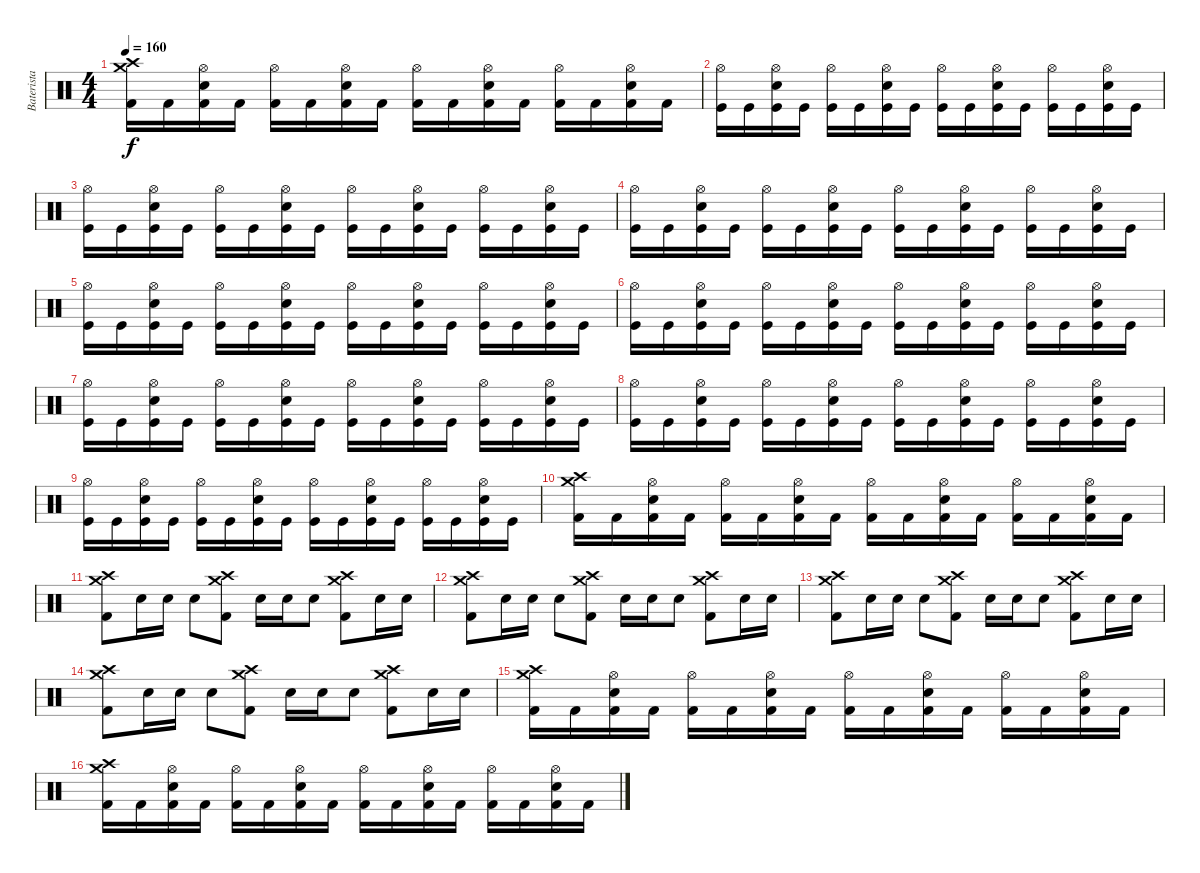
\track ("Baterista" "Baterista") {instrument percussion}
\staff {score}
\articulation defaults
\ts (4 4)
\tempo 160
\clef neutral
\ks c
("Kick (hit) 2" "Crash high (hit)" "Crash medium (hit)").16{dy f} "Kick (hit) 2".16 ("Kick (hit) 2" "Electric Snare (hit)" "Hi-Hat (open)").16 "Kick (hit) 2".16 ("Kick (hit) 2" "Hi-Hat (open)").16 "Kick (hit) 2".16 ("Kick (hit) 2" "Electric Snare (hit)" "Hi-Hat (open)").16 "Kick (hit) 2".16 ("Kick (hit) 2" "Hi-Hat (open)").16 "Kick (hit) 2".16 ("Kick (hit) 2" "Electric Snare (hit)" "Hi-Hat (open)").16 "Kick (hit) 2".16 ("Kick (hit) 2" "Hi-Hat (open)").16 "Kick (hit) 2".16 ("Kick (hit) 2" "Electric Snare (hit)" "Hi-Hat (open)").16 "Kick (hit) 2".16 |
("Hi-Hat (open)" "Kick (hit)").16 "Kick (hit)".16 ("Hi-Hat (open)" "Snare (hit) 2" "Kick (hit)").16 "Kick (hit)".16 ("Hi-Hat (open)" "Kick (hit)").16 "Kick (hit)".16 ("Hi-Hat (open)" "Snare (hit) 2" "Kick (hit)").16 "Kick (hit)".16 ("Hi-Hat (open)" "Kick (hit)").16 "Kick (hit)".16 ("Hi-Hat (open)" "Snare (hit) 2" "Kick (hit)").16 "Kick (hit)".16 ("Hi-Hat (open)" "Kick (hit)").16 "Kick (hit)".16 ("Hi-Hat (open)" "Snare (hit) 2" "Kick (hit)").16 "Kick (hit)".16 |
("Hi-Hat (open)" "Kick (hit)").16 "Kick (hit)".16 ("Hi-Hat (open)" "Snare (hit) 2" "Kick (hit)").16 "Kick (hit)".16 ("Hi-Hat (open)" "Kick (hit)").16 "Kick (hit)".16 ("Hi-Hat (open)" "Snare (hit) 2" "Kick (hit)").16 "Kick (hit)".16 ("Hi-Hat (open)" "Kick (hit)").16 "Kick (hit)".16 ("Hi-Hat (open)" "Snare (hit) 2" "Kick (hit)").16 "Kick (hit)".16 ("Hi-Hat (open)" "Kick (hit)").16 "Kick (hit)".16 ("Hi-Hat (open)" "Snare (hit) 2" "Kick (hit)").16 "Kick (hit)".16 |
("Hi-Hat (open)" "Kick (hit)").16 "Kick (hit)".16 ("Hi-Hat (open)" "Snare (hit) 2" "Kick (hit)").16 "Kick (hit)".16 ("Hi-Hat (open)" "Kick (hit)").16 "Kick (hit)".16 ("Hi-Hat (open)" "Snare (hit) 2" "Kick (hit)").16 "Kick (hit)".16 ("Hi-Hat (open)" "Kick (hit)").16 "Kick (hit)".16 ("Hi-Hat (open)" "Snare (hit) 2" "Kick (hit)").16 "Kick (hit)".16 ("Hi-Hat (open)" "Kick (hit)").16 "Kick (hit)".16 ("Hi-Hat (open)" "Snare (hit) 2" "Kick (hit)").16 "Kick (hit)".16 |
("Hi-Hat (open)" "Kick (hit)").16 "Kick (hit)".16 ("Hi-Hat (open)" "Snare (hit) 2" "Kick (hit)").16 "Kick (hit)".16 ("Hi-Hat (open)" "Kick (hit)").16 "Kick (hit)".16 ("Hi-Hat (open)" "Snare (hit) 2" "Kick (hit)").16 "Kick (hit)".16 ("Hi-Hat (open)" "Kick (hit)").16 "Kick (hit)".16 ("Hi-Hat (open)" "Snare (hit) 2" "Kick (hit)").16 "Kick (hit)".16 ("Hi-Hat (open)" "Kick (hit)").16 "Kick (hit)".16 ("Hi-Hat (open)" "Snare (hit) 2" "Kick (hit)").16 "Kick (hit)".16 |
("Hi-Hat (open)" "Kick (hit)").16 "Kick (hit)".16 ("Hi-Hat (open)" "Snare (hit) 2" "Kick (hit)").16 "Kick (hit)".16 ("Hi-Hat (open)" "Kick (hit)").16 "Kick (hit)".16 ("Hi-Hat (open)" "Snare (hit) 2" "Kick (hit)").16 "Kick (hit)".16 ("Hi-Hat (open)" "Kick (hit)").16 "Kick (hit)".16 ("Hi-Hat (open)" "Snare (hit) 2" "Kick (hit)").16 "Kick (hit)".16 ("Hi-Hat (open)" "Kick (hit)").16 "Kick (hit)".16 ("Hi-Hat (open)" "Snare (hit) 2" "Kick (hit)").16 "Kick (hit)".16 |
("Hi-Hat (open)" "Kick (hit)").16 "Kick (hit)".16 ("Hi-Hat (open)" "Snare (hit) 2" "Kick (hit)").16 "Kick (hit)".16 ("Hi-Hat (open)" "Kick (hit)").16 "Kick (hit)".16 ("Hi-Hat (open)" "Snare (hit) 2" "Kick (hit)").16 "Kick (hit)".16 ("Hi-Hat (open)" "Kick (hit)").16 "Kick (hit)".16 ("Hi-Hat (open)" "Snare (hit) 2" "Kick (hit)").16 "Kick (hit)".16 ("Hi-Hat (open)" "Kick (hit)").16 "Kick (hit)".16 ("Hi-Hat (open)" "Snare (hit) 2" "Kick (hit)").16 "Kick (hit)".16 |
("Hi-Hat (open)" "Kick (hit)").16 "Kick (hit)".16 ("Hi-Hat (open)" "Snare (hit) 2" "Kick (hit)").16 "Kick (hit)".16 ("Hi-Hat (open)" "Kick (hit)").16 "Kick (hit)".16 ("Hi-Hat (open)" "Snare (hit) 2" "Kick (hit)").16 "Kick (hit)".16 ("Hi-Hat (open)" "Kick (hit)").16 "Kick (hit)".16 ("Hi-Hat (open)" "Snare (hit) 2" "Kick (hit)").16 "Kick (hit)".16 ("Hi-Hat (open)" "Kick (hit)").16 "Kick (hit)".16 ("Hi-Hat (open)" "Snare (hit) 2" "Kick (hit)").16 "Kick (hit)".16 |
("Hi-Hat (open)" "Kick (hit)").16 "Kick (hit)".16 ("Hi-Hat (open)" "Snare (hit) 2" "Kick (hit)").16 "Kick (hit)".16 ("Hi-Hat (open)" "Kick (hit)").16 "Kick (hit)".16 ("Hi-Hat (open)" "Snare (hit) 2" "Kick (hit)").16 "Kick (hit)".16 ("Hi-Hat (open)" "Kick (hit)").16 "Kick (hit)".16 ("Hi-Hat (open)" "Snare (hit) 2" "Kick (hit)").16 "Kick (hit)".16 ("Hi-Hat (open)" "Kick (hit)").16 "Kick (hit)".16 ("Hi-Hat (open)" "Snare (hit) 2" "Kick (hit)").16 "Kick (hit)".16 |
("Kick (hit) 2" "Crash high (hit)" "Crash medium (hit)").16 "Kick (hit) 2".16 ("Kick (hit) 2" "Electric Snare (hit)" "Hi-Hat (open)").16 "Kick (hit) 2".16 ("Kick (hit) 2" "Hi-Hat (open)").16 "Kick (hit) 2".16 ("Kick (hit) 2" "Electric Snare (hit)" "Hi-Hat (open)").16 "Kick (hit) 2".16 ("Kick (hit) 2" "Hi-Hat (open)").16 "Kick (hit) 2".16 ("Kick (hit) 2" "Electric Snare (hit)" "Hi-Hat (open)").16 "Kick (hit) 2".16 ("Kick (hit) 2" "Hi-Hat (open)").16 "Kick (hit) 2".16 ("Kick (hit) 2" "Electric Snare (hit)" "Hi-Hat (open)").16 "Kick (hit) 2".16 |
("Kick (hit) 2" "Crash high (hit)" "Crash medium (hit)").8 "Electric Snare (hit)".16 "Electric Snare (hit)".16 "Electric Snare (hit)".8 ("Kick (hit) 2" "Crash high (hit)" "Crash medium (hit)").8 "Electric Snare (hit)".16 "Electric Snare (hit)".16 "Electric Snare (hit)".8 ("Kick (hit) 2" "Crash high (hit)" "Crash medium (hit)").8 "Electric Snare (hit)".16 "Electric Snare (hit)".16 |
("Kick (hit) 2" "Crash high (hit)" "Crash medium (hit)").8 "Electric Snare (hit)".16 "Electric Snare (hit)".16 "Electric Snare (hit)".8 ("Kick (hit) 2" "Crash high (hit)" "Crash medium (hit)").8 "Electric Snare (hit)".16 "Electric Snare (hit)".16 "Electric Snare (hit)".8 ("Kick (hit) 2" "Crash high (hit)" "Crash medium (hit)").8 "Electric Snare (hit)".16 "Electric Snare (hit)".16 |
("Kick (hit) 2" "Crash high (hit)" "Crash medium (hit)").8 "Electric Snare (hit)".16 "Electric Snare (hit)".16 "Electric Snare (hit)".8 ("Kick (hit) 2" "Crash high (hit)" "Crash medium (hit)").8 "Electric Snare (hit)".16 "Electric Snare (hit)".16 "Electric Snare (hit)".8 ("Kick (hit) 2" "Crash high (hit)" "Crash medium (hit)").8 "Electric Snare (hit)".16 "Electric Snare (hit)".16 |
("Kick (hit) 2" "Crash high (hit)" "Crash medium (hit)").8 "Electric Snare (hit)".16 "Electric Snare (hit)".16 "Electric Snare (hit)".8 ("Kick (hit) 2" "Crash high (hit)" "Crash medium (hit)").8 "Electric Snare (hit)".16 "Electric Snare (hit)".16 "Electric Snare (hit)".8 ("Kick (hit) 2" "Crash high (hit)" "Crash medium (hit)").8 "Electric Snare (hit)".16 "Electric Snare (hit)".16 |
("Kick (hit) 2" "Crash high (hit)" "Crash medium (hit)").16 "Kick (hit) 2".16 ("Kick (hit) 2" "Electric Snare (hit)" "Hi-Hat (open)").16 "Kick (hit) 2".16 ("Kick (hit) 2" "Hi-Hat (open)").16 "Kick (hit) 2".16 ("Kick (hit) 2" "Electric Snare (hit)" "Hi-Hat (open)").16 "Kick (hit) 2".16 ("Kick (hit) 2" "Hi-Hat (open)").16 "Kick (hit) 2".16 ("Kick (hit) 2" "Electric Snare (hit)" "Hi-Hat (open)").16 "Kick (hit) 2".16 ("Kick (hit) 2" "Hi-Hat (open)").16 "Kick (hit) 2".16 ("Kick (hit) 2" "Electric Snare (hit)" "Hi-Hat (open)").16 "Kick (hit) 2".16 |
("Kick (hit) 2" "Crash high (hit)" "Crash medium (hit)").16 "Kick (hit) 2".16 ("Kick (hit) 2" "Electric Snare (hit)" "Hi-Hat (open)").16 "Kick (hit) 2".16 ("Kick (hit) 2" "Hi-Hat (open)").16 "Kick (hit) 2".16 ("Kick (hit) 2" "Electric Snare (hit)" "Hi-Hat (open)").16 "Kick (hit) 2".16 ("Kick (hit) 2" "Hi-Hat (open)").16 "Kick (hit) 2".16 ("Kick (hit) 2" "Electric Snare (hit)" "Hi-Hat (open)").16 "Kick (hit) 2".16 ("Kick (hit) 2" "Hi-Hat (open)").16 "Kick (hit) 2".16 ("Kick (hit) 2" "Electric Snare (hit)" "Hi-Hat (open)").16 "Kick (hit) 2".16
